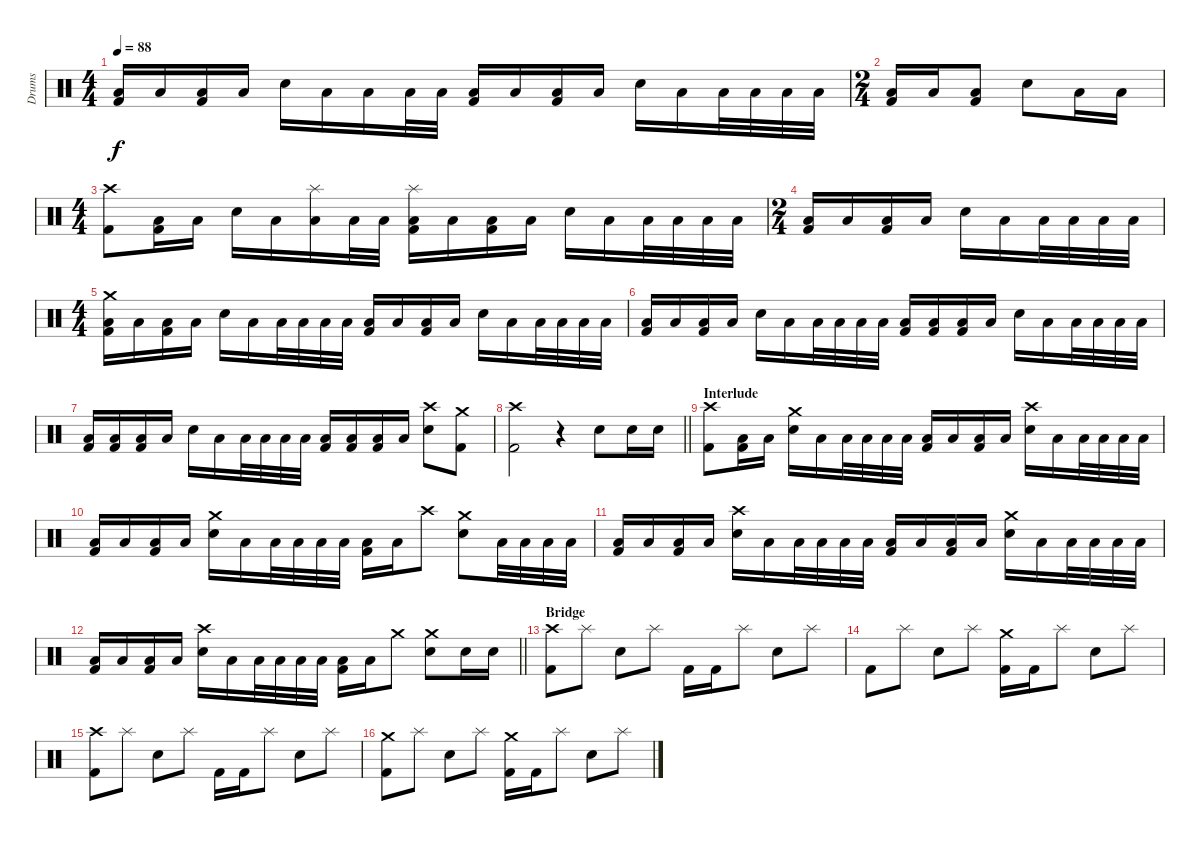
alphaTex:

\track ("Drums" "Drums") {instrument percussion}
\staff {score}
\articulation defaults
\ts (4 4)
\tempo 88
\clef neutral
\ks c
("Low Tom (hit)" "Kick (hit) 2").16{dy f} "Low Tom (hit)".16 ("Low Tom (hit)" "Kick (hit) 2").16 "Low Tom (hit)".16 "Snare (hit) 2".16 "Low Tom (hit)".16 "Low Tom (hit)".16 "Low Tom (hit)".32 "Low Tom (hit)".32 ("Low Tom (hit)" "Kick (hit) 2").16 "Low Tom (hit)".16 ("Low Tom (hit)" "Kick (hit) 2").16 "Low Tom (hit)".16 "Snare (hit) 2".16 "Low Tom (hit)".16 "Low Tom (hit)".32 "Low Tom (hit)".32 "Low Tom (hit)".32 "Low Tom (hit)".32 |
\ts (2 4)
("Low Tom (hit)" "Kick (hit) 2").16 "Low Tom (hit)".16 ("Low Tom (hit)" "Kick (hit) 2").8 "Snare (hit) 2".8 "Low Tom (hit)".16 "Low Tom (hit)".16 |
\ts (4 4)
("Crash high (hit)" "Kick (hit) 2").8 ("Low Tom (hit)" "Kick (hit) 2").16 "Low Tom (hit)".16 "Snare (hit) 2".16 "Low Tom (hit)".16 ("Splash (hit)" "Low Tom (hit)").16 "Low Tom (hit)".32 "Low Tom (hit)".32 ("Splash (hit)" "Low Tom (hit)" "Kick (hit) 2").16 "Low Tom (hit)".16 ("Low Tom (hit)" "Kick (hit) 2").16 "Low Tom (hit)".16 "Snare (hit) 2".16 "Low Tom (hit)".16 "Low Tom (hit)".32 "Low Tom (hit)".32 "Low Tom (hit)".32 "Low Tom (hit)".32 |
\ts (2 4)
("Low Tom (hit)" "Kick (hit) 2").16 "Low Tom (hit)".16 ("Low Tom (hit)" "Kick (hit) 2").16 "Low Tom (hit)".16 "Snare (hit) 2".16 "Low Tom (hit)".16 "Low Tom (hit)".32 "Low Tom (hit)".32 "Low Tom (hit)".32 "Low Tom (hit)".32 |
\ts (4 4)
("Crash medium (hit)" "Low Tom (hit)" "Kick (hit) 2").16 "Low Tom (hit)".16 ("Low Tom (hit)" "Kick (hit) 2").16 "Low Tom (hit)".16 "Snare (hit) 2".16 "Low Tom (hit)".16 "Low Tom (hit)".32 "Low Tom (hit)".32 "Low Tom (hit)".32 "Low Tom (hit)".32 ("Low Tom (hit)" "Kick (hit) 2").16 "Low Tom (hit)".16 ("Low Tom (hit)" "Kick (hit) 2").16 "Low Tom (hit)".16 "Snare (hit) 2".16 "Low Tom (hit)".16 "Low Tom (hit)".32 "Low Tom (hit)".32 "Low Tom (hit)".32 "Low Tom (hit)".32 |
("Low Tom (hit)" "Kick (hit) 2").16 "Low Tom (hit)".16 ("Low Tom (hit)" "Kick (hit) 2").16 "Low Tom (hit)".16 "Snare (hit) 2".16 "Low Tom (hit)".16 "Low Tom (hit)".32 "Low Tom (hit)".32 "Low Tom (hit)".32 "Low Tom (hit)".32 ("Low Tom (hit)" "Kick (hit) 2").16 ("Low Tom (hit)" "Kick (hit) 2").16 ("Low Tom (hit)" "Kick (hit) 2").16 "Low Tom (hit)".16 "Snare (hit) 2".16 "Low Tom (hit)".16 "Low Tom (hit)".32 "Low Tom (hit)".32 "Low Tom (hit)".32 "Low Tom (hit)".32 |
("Low Tom (hit)" "Kick (hit) 2").16 ("Low Tom (hit)" "Kick (hit) 2").16 ("Low Tom (hit)" "Kick (hit) 2").16 "Low Tom (hit)".16 "Snare (hit) 2".16 "Low Tom (hit)".16 "Low Tom (hit)".32 "Low Tom (hit)".32 "Low Tom (hit)".32 "Low Tom (hit)".32 ("Low Tom (hit)" "Kick (hit) 2").16 ("Low Tom (hit)" "Kick (hit) 2").16 ("Low Tom (hit)" "Kick (hit) 2").16 "Low Tom (hit)".16 ("Crash high (hit)" "Snare (hit) 2").8 ("Crash medium (hit)" "Kick (hit) 2").8 |
\barLineRight lightlight
("Crash high (hit)" "Kick (hit) 2").2 r.4 "Snare (hit) 2".8 "Snare (hit) 2".16 "Snare (hit) 2".16 |
\section ("" "Interlude")
("Crash high (hit)" "Kick (hit) 2").8 ("Low Tom (hit)" "Kick (hit) 2").16 "Low Tom (hit)".16 ("Crash medium (hit)" "Snare (hit) 2").16 "Low Tom (hit)".16 "Low Tom (hit)".32 "Low Tom (hit)".32 "Low Tom (hit)".32 "Low Tom (hit)".32 ("Low Tom (hit)" "Kick (hit) 2").16 "Low Tom (hit)".16 ("Low Tom (hit)" "Kick (hit) 2").16 "Low Tom (hit)".16 ("Crash high (hit)" "Snare (hit) 2").16 "Low Tom (hit)".16 "Low Tom (hit)".32 "Low Tom (hit)".32 "Low Tom (hit)".32 "Low Tom (hit)".32 |
("Low Tom (hit)" "Kick (hit) 2").16 "Low Tom (hit)".16 ("Low Tom (hit)" "Kick (hit) 2").16 "Low Tom (hit)".16 ("Crash medium (hit)" "Snare (hit) 2").16 "Low Tom (hit)".16 "Low Tom (hit)".32 "Low Tom (hit)".32 "Low Tom (hit)".32 "Low Tom (hit)".32 ("Low Tom (hit)" "Kick (hit) 2").16 "Low Tom (hit)".16 "Crash high (hit)".8 ("Crash medium (hit)" "Snare (hit) 2").8 "Low Tom (hit)".32 "Low Tom (hit)".32 "Low Tom (hit)".32 "Low Tom (hit)".32 |
("Low Tom (hit)" "Kick (hit) 2").16 "Low Tom (hit)".16 ("Low Tom (hit)" "Kick (hit) 2").16 "Low Tom (hit)".16 ("Crash high (hit)" "Snare (hit) 2").16 "Low Tom (hit)".16 "Low Tom (hit)".32 "Low Tom (hit)".32 "Low Tom (hit)".32 "Low Tom (hit)".32 ("Low Tom (hit)" "Kick (hit) 2").16 "Low Tom (hit)".16 ("Low Tom (hit)" "Kick (hit) 2").16 "Low Tom (hit)".16 ("Crash medium (hit)" "Snare (hit) 2").16 "Low Tom (hit)".16 "Low Tom (hit)".32 "Low Tom (hit)".32 "Low Tom (hit)".32 "Low Tom (hit)".32 |
\barLineRight lightlight
("Low Tom (hit)" "Kick (hit) 2").16 "Low Tom (hit)".16 ("Low Tom (hit)" "Kick (hit) 2").16 "Low Tom (hit)".16 ("Crash high (hit)" "Snare (hit) 2").16 "Low Tom (hit)".16 "Low Tom (hit)".32 "Low Tom (hit)".32 "Low Tom (hit)".32 "Low Tom (hit)".32 ("Low Tom (hit)" "Kick (hit) 2").16 "Low Tom (hit)".16 "Crash medium (hit)".8 ("Crash medium (hit)" "Snare (hit) 2").8 "Snare (hit) 2".16 "Snare (hit) 2".16 |
\section ("" "Bridge")
("Crash high (hit)" "Kick (hit) 2").8 "Splash (hit)".8 "Snare (hit) 2".8 "Splash (hit)".8 "Kick (hit) 2".16 "Kick (hit) 2".16 "Splash (hit)".8 "Snare (hit) 2".8 "Splash (hit)".8 |
"Kick (hit) 2".8 "Splash (hit)".8 "Snare (hit) 2".8 "Splash (hit)".8 ("Crash medium (hit)" "Kick (hit) 2").16 "Kick (hit) 2".16 "Splash (hit)".8 "Snare (hit) 2".8 "Splash (hit)".8 |
("Crash high (hit)" "Kick (hit) 2").8 "Splash (hit)".8 "Snare (hit) 2".8 "Splash (hit)".8 "Kick (hit) 2".16 "Kick (hit) 2".16 "Splash (hit)".8 "Snare (hit) 2".8 "Splash (hit)".8 |
("Crash medium (hit)" "Kick (hit) 2").8 "Splash (hit)".8 "Snare (hit) 2".8 "Splash (hit)".8 ("Crash medium (hit)" "Kick (hit) 2").16 "Kick (hit) 2".16 "Splash (hit)".8 "Snare (hit) 2".8 "Splash (hit)".8
